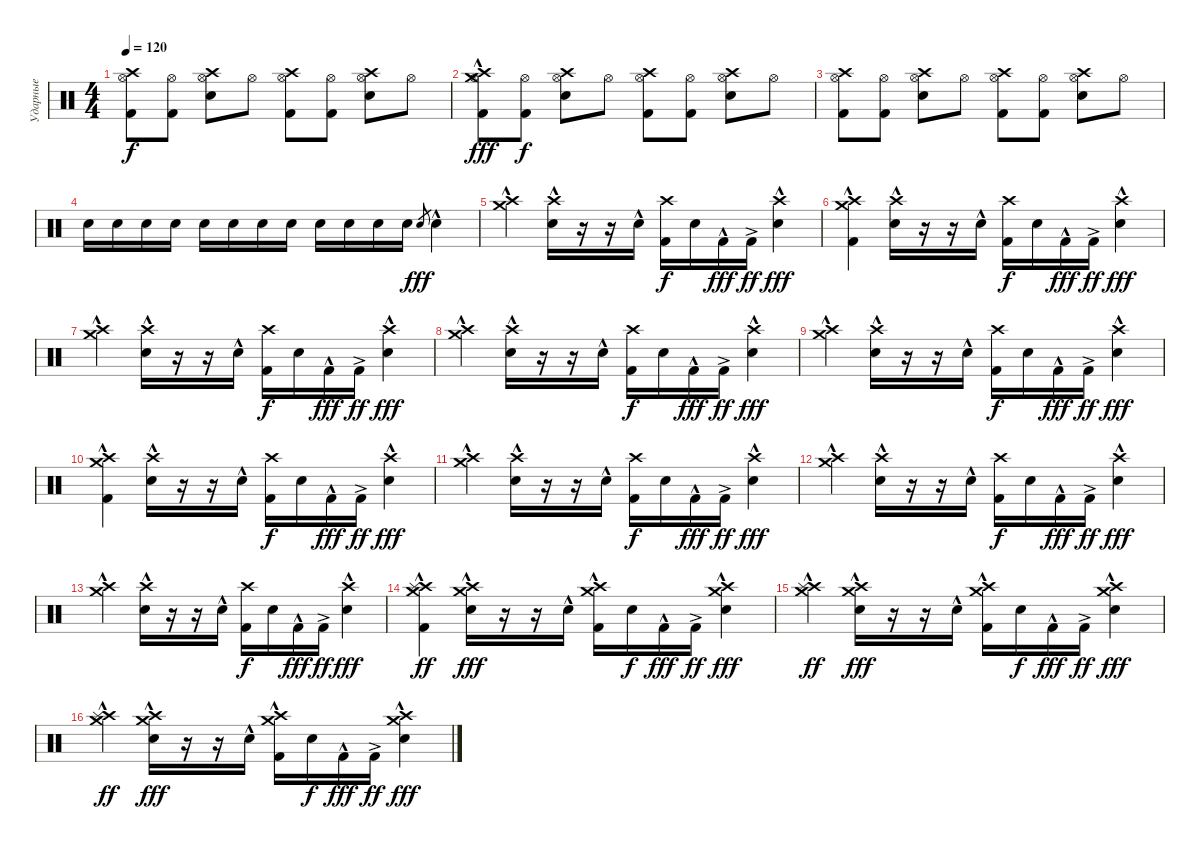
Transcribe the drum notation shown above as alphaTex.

\track ("Ударные" "Ударные") {instrument percussion}
\staff {score}
\articulation defaults
\ts (4 4)
\tempo 120
\clef neutral
\ks c
("Crash high (hit)" "Hi-Hat (open)" "Kick (hit) 2").8{dy f} ("Hi-Hat (open)" "Kick (hit) 2").8 ("Crash high (hit)" "Hi-Hat (open)" "Electric Snare (hit)").8 "Hi-Hat (open)".8 ("Crash high (hit)" "Hi-Hat (open)" "Kick (hit) 2").8 ("Hi-Hat (open)" "Kick (hit) 2").8 ("Crash high (hit)" "Hi-Hat (open)" "Electric Snare (hit)").8 "Hi-Hat (open)".8 |
("Crash high (hit)"{hac} "Hi-Hat (open)"{hac} "Crash medium (hit)"{hac} "Kick (hit) 2").8{dy fff} ("Hi-Hat (open)" "Kick (hit) 2").8{dy f} ("Crash high (hit)" "Hi-Hat (open)" "Electric Snare (hit)").8 "Hi-Hat (open)".8 ("Crash high (hit)" "Hi-Hat (open)" "Kick (hit) 2").8 ("Hi-Hat (open)" "Kick (hit) 2").8 ("Crash high (hit)" "Hi-Hat (open)" "Electric Snare (hit)").8 "Hi-Hat (open)".8 |
("Crash high (hit)" "Hi-Hat (open)" "Kick (hit) 2").8 ("Hi-Hat (open)" "Kick (hit) 2").8 ("Crash high (hit)" "Hi-Hat (open)" "Electric Snare (hit)").8 "Hi-Hat (open)".8 ("Crash high (hit)" "Hi-Hat (open)" "Kick (hit) 2").8 ("Hi-Hat (open)" "Kick (hit) 2").8 ("Crash high (hit)" "Hi-Hat (open)" "Electric Snare (hit)").8 "Hi-Hat (open)".8 |
"Electric Snare (hit)".16 "Electric Snare (hit)".16 "Electric Snare (hit)".16 "Electric Snare (hit)".16 "Electric Snare (hit)".16 "Electric Snare (hit)".16 "Electric Snare (hit)".16 "Electric Snare (hit)".16 "Electric Snare (hit)".16 "Electric Snare (hit)".16 "Electric Snare (hit)".16 "Electric Snare (hit)".16 "Electric Snare (hit)".8{gr dy fff} "Electric Snare (hit)"{hac}.4 |
("Crash high (hit)" "Crash medium (hit)"{hac}).4 ("Crash high (hit)" "Electric Snare (hit)"{hac}).16 r.16 r.16 "Electric Snare (hit)"{hac}.16 ("Crash high (hit)" "Kick (hit) 2").16{dy f} "Electric Snare (hit)".16 "Kick (hit) 2"{hac}.16{dy fff} "Kick (hit) 2"{ac}.16{dy ff} ("Crash high (hit)" "Electric Snare (hit)"{hac}).4{dy fff} |
("Crash high (hit)" "Crash medium (hit)"{hac} "Kick (hit) 2").4 ("Crash high (hit)" "Electric Snare (hit)"{hac}).16 r.16 r.16 "Electric Snare (hit)"{hac}.16 ("Crash high (hit)" "Kick (hit) 2").16{dy f} "Electric Snare (hit)".16 "Kick (hit) 2"{hac}.16{dy fff} "Kick (hit) 2"{ac}.16{dy ff} ("Crash high (hit)" "Electric Snare (hit)"{hac}).4{dy fff} |
("Crash high (hit)" "Crash medium (hit)"{hac}).4 ("Crash high (hit)" "Electric Snare (hit)"{hac}).16 r.16 r.16 "Electric Snare (hit)"{hac}.16 ("Crash high (hit)" "Kick (hit) 2").16{dy f} "Electric Snare (hit)".16 "Kick (hit) 2"{hac}.16{dy fff} "Kick (hit) 2"{ac}.16{dy ff} ("Crash high (hit)" "Electric Snare (hit)"{hac}).4{dy fff} |
("Crash high (hit)" "Crash medium (hit)"{hac}).4 ("Crash high (hit)" "Electric Snare (hit)"{hac}).16 r.16 r.16 "Electric Snare (hit)"{hac}.16 ("Crash high (hit)" "Kick (hit) 2").16{dy f} "Electric Snare (hit)".16 "Kick (hit) 2"{hac}.16{dy fff} "Kick (hit) 2"{ac}.16{dy ff} ("Crash high (hit)" "Electric Snare (hit)"{hac}).4{dy fff} |
("Crash high (hit)" "Crash medium (hit)"{hac}).4 ("Crash high (hit)" "Electric Snare (hit)"{hac}).16 r.16 r.16 "Electric Snare (hit)"{hac}.16 ("Crash high (hit)" "Kick (hit) 2").16{dy f} "Electric Snare (hit)".16 "Kick (hit) 2"{hac}.16{dy fff} "Kick (hit) 2"{ac}.16{dy ff} ("Crash high (hit)" "Electric Snare (hit)"{hac}).4{dy fff} |
("Crash high (hit)" "Crash medium (hit)"{hac} "Kick (hit) 2").4 ("Crash high (hit)" "Electric Snare (hit)"{hac}).16 r.16 r.16 "Electric Snare (hit)"{hac}.16 ("Crash high (hit)" "Kick (hit) 2").16{dy f} "Electric Snare (hit)".16 "Kick (hit) 2"{hac}.16{dy fff} "Kick (hit) 2"{ac}.16{dy ff} ("Crash high (hit)" "Electric Snare (hit)"{hac}).4{dy fff} |
("Crash high (hit)" "Crash medium (hit)"{hac}).4 ("Crash high (hit)" "Electric Snare (hit)"{hac}).16 r.16 r.16 "Electric Snare (hit)"{hac}.16 ("Crash high (hit)" "Kick (hit) 2").16{dy f} "Electric Snare (hit)".16 "Kick (hit) 2"{hac}.16{dy fff} "Kick (hit) 2"{ac}.16{dy ff} ("Crash high (hit)" "Electric Snare (hit)"{hac}).4{dy fff} |
("Crash high (hit)" "Crash medium (hit)"{hac}).4 ("Crash high (hit)" "Electric Snare (hit)"{hac}).16 r.16 r.16 "Electric Snare (hit)"{hac}.16 ("Crash high (hit)" "Kick (hit) 2").16{dy f} "Electric Snare (hit)".16 "Kick (hit) 2"{hac}.16{dy fff} "Kick (hit) 2"{ac}.16{dy ff} ("Crash high (hit)" "Electric Snare (hit)"{hac}).4{dy fff} |
("Crash high (hit)" "Crash medium (hit)"{hac}).4 ("Crash high (hit)" "Electric Snare (hit)"{hac}).16 r.16 r.16 "Electric Snare (hit)"{hac}.16 ("Crash high (hit)" "Kick (hit) 2").16{dy f} "Electric Snare (hit)".16 "Kick (hit) 2"{hac}.16{dy fff} "Kick (hit) 2"{ac}.16{dy ff} ("Crash high (hit)" "Electric Snare (hit)"{hac}).4{dy fff} |
("Crash high (hit)"{hac} "Crash medium (hit)"{hac} "Splash (hit)"{hac} "Kick (hit) 2").4{dy ff} ("Crash high (hit)" "Crash medium (hit)"{hac} "Electric Snare (hit)"{hac}).16{dy fff} r.16 r.16 "Electric Snare (hit)"{hac}.16 ("Crash high (hit)" "Crash medium (hit)"{hac} "Kick (hit) 2").16 "Electric Snare (hit)".16{dy f} "Kick (hit) 2"{hac}.16{dy fff} "Kick (hit) 2"{ac}.16{dy ff} ("Crash high (hit)" "Crash medium (hit)"{hac} "Electric Snare (hit)"{hac}).4{dy fff} |
("Crash high (hit)"{hac} "Crash medium (hit)"{hac} "Splash (hit)"{hac}).4{dy ff} ("Crash high (hit)" "Crash medium (hit)"{hac} "Electric Snare (hit)"{hac}).16{dy fff} r.16 r.16 "Electric Snare (hit)"{hac}.16 ("Crash high (hit)" "Crash medium (hit)"{hac} "Kick (hit) 2").16 "Electric Snare (hit)".16{dy f} "Kick (hit) 2"{hac}.16{dy fff} "Kick (hit) 2"{ac}.16{dy ff} ("Crash high (hit)" "Crash medium (hit)"{hac} "Electric Snare (hit)"{hac}).4{dy fff} |
("Crash high (hit)"{hac} "Crash medium (hit)"{hac} "Splash (hit)"{hac}).4{dy ff} ("Crash high (hit)" "Crash medium (hit)"{hac} "Electric Snare (hit)"{hac}).16{dy fff} r.16 r.16 "Electric Snare (hit)"{hac}.16 ("Crash high (hit)" "Crash medium (hit)"{hac} "Kick (hit) 2").16 "Electric Snare (hit)".16{dy f} "Kick (hit) 2"{hac}.16{dy fff} "Kick (hit) 2"{ac}.16{dy ff} ("Crash high (hit)" "Crash medium (hit)"{hac} "Electric Snare (hit)"{hac}).4{dy fff}
